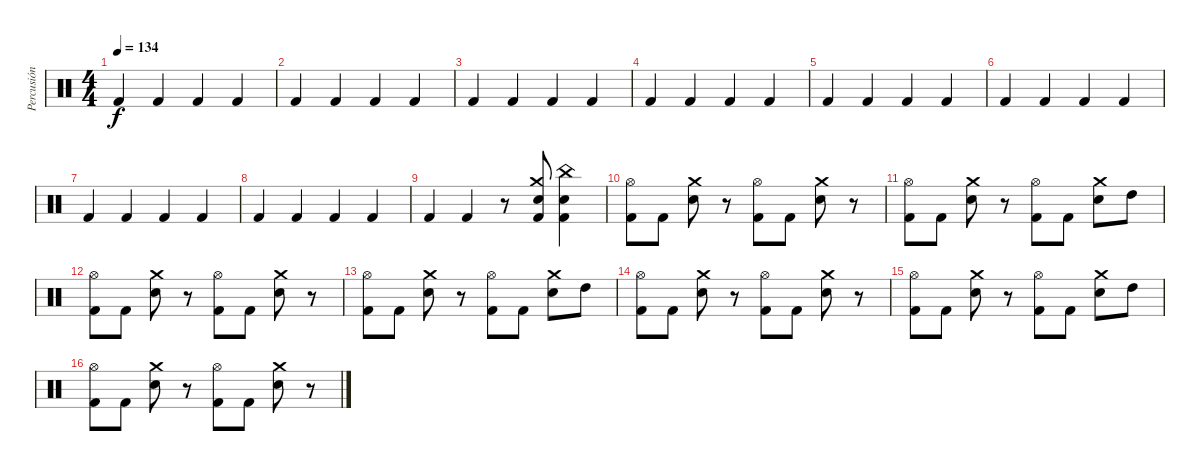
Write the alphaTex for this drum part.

\track ("Percusión" "Percusión") {instrument percussion}
\staff {score}
\articulation defaults
\ts (4 4)
\tempo 134
\clef neutral
\ks c "Kick (hit) 2".4{dy f} "Kick (hit) 2".4 "Kick (hit) 2".4 "Kick (hit) 2".4
|
"Kick (hit) 2".4 "Kick (hit) 2".4 "Kick (hit) 2".4 "Kick (hit) 2".4 |
"Kick (hit) 2".4 "Kick (hit) 2".4 "Kick (hit) 2".4 "Kick (hit) 2".4 |
"Kick (hit) 2".4 "Kick (hit) 2".4 "Kick (hit) 2".4 "Kick (hit) 2".4 |
"Kick (hit) 2".4 "Kick (hit) 2".4 "Kick (hit) 2".4 "Kick (hit) 2".4 |
"Kick (hit) 2".4 "Kick (hit) 2".4 "Kick (hit) 2".4 "Kick (hit) 2".4 |
"Kick (hit) 2".4 "Kick (hit) 2".4 "Kick (hit) 2".4 "Kick (hit) 2".4 |
"Kick (hit) 2".4 "Kick (hit) 2".4 "Kick (hit) 2".4 "Kick (hit) 2".4 |
"Kick (hit) 2".4 "Kick (hit) 2".4 r.8 ("Crash medium (hit)" "Kick (hit) 2" "Snare (hit) 2").8 ("China (hit)" "Kick (hit) 2" "Snare (hit) 2").4 |
("Hi-Hat (open)" "Kick (hit) 2").8 "Kick (hit) 2".8 ("Crash medium (hit)" "Snare (hit) 2").8 r.8 ("Hi-Hat (open)" "Kick (hit) 2").8 "Kick (hit) 2".8 ("Crash medium (hit)" "Snare (hit) 2").8 r.8 |
("Hi-Hat (open)" "Kick (hit) 2").8 "Kick (hit) 2".8 ("Crash medium (hit)" "Snare (hit) 2").8 r.8 ("Hi-Hat (open)" "Kick (hit) 2").8 "Kick (hit) 2".8 ("Crash medium (hit)" "Snare (hit) 2").8 "High Tom (hit)".8 |
("Hi-Hat (open)" "Kick (hit) 2").8 "Kick (hit) 2".8 ("Crash medium (hit)" "Snare (hit) 2").8 r.8 ("Hi-Hat (open)" "Kick (hit) 2").8 "Kick (hit) 2".8 ("Crash medium (hit)" "Snare (hit) 2").8 r.8 |
("Hi-Hat (open)" "Kick (hit) 2").8 "Kick (hit) 2".8 ("Crash medium (hit)" "Snare (hit) 2").8 r.8 ("Hi-Hat (open)" "Kick (hit) 2").8 "Kick (hit) 2".8 ("Crash medium (hit)" "Snare (hit) 2").8 "High Tom (hit)".8 |
("Hi-Hat (open)" "Kick (hit) 2").8 "Kick (hit) 2".8 ("Crash medium (hit)" "Snare (hit) 2").8 r.8 ("Hi-Hat (open)" "Kick (hit) 2").8 "Kick (hit) 2".8 ("Crash medium (hit)" "Snare (hit) 2").8 r.8 |
("Hi-Hat (open)" "Kick (hit) 2").8 "Kick (hit) 2".8 ("Crash medium (hit)" "Snare (hit) 2").8 r.8 ("Hi-Hat (open)" "Kick (hit) 2").8 "Kick (hit) 2".8 ("Crash medium (hit)" "Snare (hit) 2").8 "High Tom (hit)".8 |
("Hi-Hat (open)" "Kick (hit) 2").8 "Kick (hit) 2".8 ("Crash medium (hit)" "Snare (hit) 2").8 r.8 ("Hi-Hat (open)" "Kick (hit) 2").8 "Kick (hit) 2".8 ("Crash medium (hit)" "Snare (hit) 2").8 r.8
